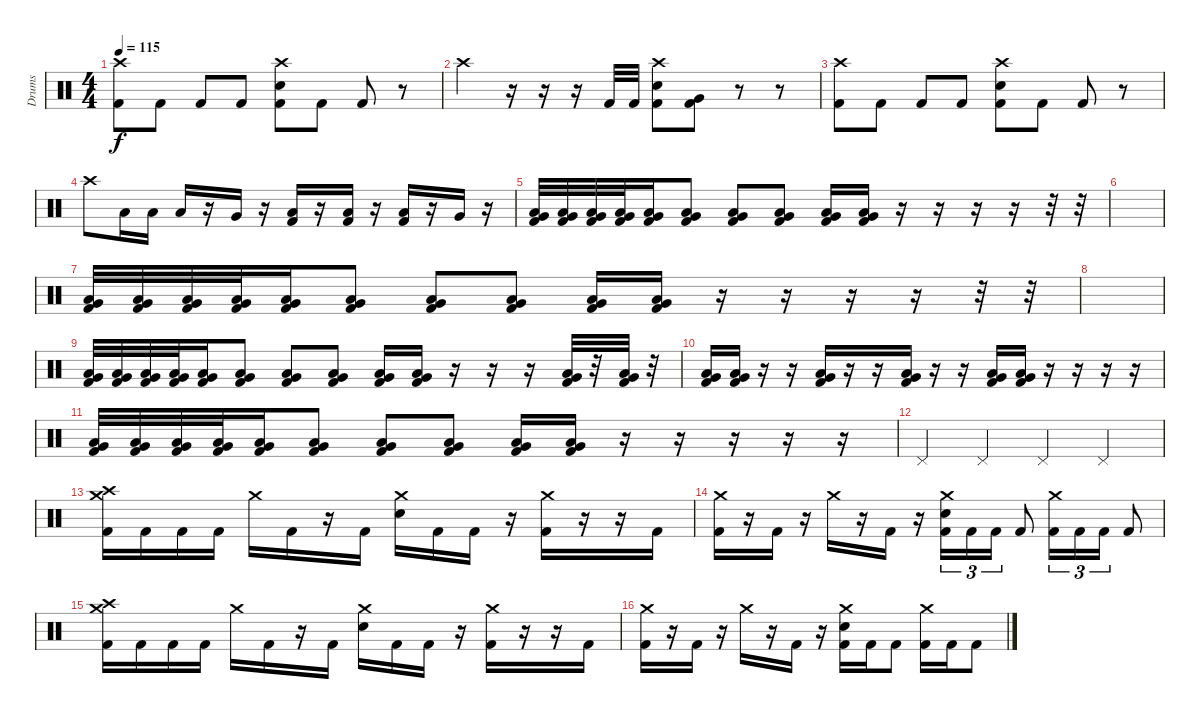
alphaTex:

\track ("Drums" "Drums") {instrument percussion}
\staff {score}
\articulation defaults
\ts (4 4)
\tempo 115
\clef neutral
\ks c
("Crash high (hit)" "Kick (hit) 2").8{dy f} "Kick (hit) 2".8 "Kick (hit) 2".8 "Kick (hit) 2".8 ("Crash high (hit)" "Snare (hit) 2" "Kick (hit) 2").8 "Kick (hit) 2".8 "Kick (hit) 2".8 r.8 |
"Crash high (hit)".4 r.16 r.16 r.16 "Kick (hit) 2".32 "Kick (hit) 2".32 ("Crash high (hit)" "Snare (hit) 2" "Kick (hit) 2").8 ("Very Low Tom (hit)" "Kick (hit) 2").8 r.8 r.8 |
("Crash high (hit)" "Kick (hit) 2").8 "Kick (hit) 2".8 "Kick (hit) 2".8 "Kick (hit) 2".8 ("Crash high (hit)" "Snare (hit) 2" "Kick (hit) 2").8 "Kick (hit) 2".8 "Kick (hit) 2".8 r.8 |
"Crash high (hit)".8 "Low Tom (hit)".16 "Low Tom (hit)".16 "Low Tom (hit)".16 r.16 "Very Low Tom (hit)".16 r.16 ("Low Tom (hit)" "Kick (hit) 2").16 r.16 ("Low Tom (hit)" "Kick (hit) 2").16 r.16 ("Low Tom (hit)" "Kick (hit) 2").16 r.16 "Very Low Tom (hit)".16 r.16 |
("Very Low Tom (hit)" "Low Tom (hit)" "Kick (hit) 2").32 ("Very Low Tom (hit)" "Low Tom (hit)" "Kick (hit) 2").32 ("Very Low Tom (hit)" "Low Tom (hit)" "Kick (hit) 2").32 ("Very Low Tom (hit)" "Low Tom (hit)" "Kick (hit) 2").32 ("Very Low Tom (hit)" "Low Tom (hit)" "Kick (hit) 2").16 ("Very Low Tom (hit)" "Low Tom (hit)" "Kick (hit) 2").8 ("Very Low Tom (hit)" "Low Tom (hit)" "Kick (hit) 2").8 ("Very Low Tom (hit)" "Low Tom (hit)" "Kick (hit) 2").8 ("Very Low Tom (hit)" "Low Tom (hit)" "Kick (hit) 2").16 ("Very Low Tom (hit)" "Low Tom (hit)" "Kick (hit) 2").16 r.16 r.16 r.16 r.16 r.32 r.32 |
|
("Very Low Tom (hit)" "Low Tom (hit)" "Kick (hit) 2").32 ("Very Low Tom (hit)" "Low Tom (hit)" "Kick (hit) 2").32 ("Very Low Tom (hit)" "Low Tom (hit)" "Kick (hit) 2").32 ("Very Low Tom (hit)" "Low Tom (hit)" "Kick (hit) 2").32 ("Very Low Tom (hit)" "Low Tom (hit)" "Kick (hit) 2").16 ("Very Low Tom (hit)" "Low Tom (hit)" "Kick (hit) 2").8 ("Very Low Tom (hit)" "Low Tom (hit)" "Kick (hit) 2").8 ("Very Low Tom (hit)" "Low Tom (hit)" "Kick (hit) 2").8 ("Very Low Tom (hit)" "Low Tom (hit)" "Kick (hit) 2").16 ("Very Low Tom (hit)" "Low Tom (hit)" "Kick (hit) 2").16 r.16 r.16 r.16 r.16 r.32 r.32 |
|
("Very Low Tom (hit)" "Low Tom (hit)" "Kick (hit) 2").32 ("Very Low Tom (hit)" "Low Tom (hit)" "Kick (hit) 2").32 ("Very Low Tom (hit)" "Low Tom (hit)" "Kick (hit) 2").32 ("Very Low Tom (hit)" "Low Tom (hit)" "Kick (hit) 2").32 ("Very Low Tom (hit)" "Low Tom (hit)" "Kick (hit) 2").16 ("Very Low Tom (hit)" "Low Tom (hit)" "Kick (hit) 2").8 ("Very Low Tom (hit)" "Low Tom (hit)" "Kick (hit) 2").8 ("Very Low Tom (hit)" "Low Tom (hit)" "Kick (hit) 2").8 ("Very Low Tom (hit)" "Low Tom (hit)" "Kick (hit) 2").16 ("Very Low Tom (hit)" "Low Tom (hit)" "Kick (hit) 2").16 r.16 r.16 r.16 ("Very Low Tom (hit)" "Low Tom (hit)" "Kick (hit) 2").32 r.32 ("Very Low Tom (hit)" "Low Tom (hit)" "Kick (hit) 2").32 r.32 |
("Very Low Tom (hit)" "Low Tom (hit)" "Kick (hit) 2").16 ("Very Low Tom (hit)" "Low Tom (hit)" "Kick (hit) 2").16 r.16 r.16 ("Very Low Tom (hit)" "Low Tom (hit)" "Kick (hit) 2").16 r.16 r.16 ("Very Low Tom (hit)" "Low Tom (hit)" "Kick (hit) 2").16 r.16 r.16 ("Very Low Tom (hit)" "Low Tom (hit)" "Kick (hit) 2").16 ("Very Low Tom (hit)" "Low Tom (hit)" "Kick (hit) 2").16 r.16 r.16 r.16 r.16 |
("Very Low Tom (hit)" "Low Tom (hit)" "Kick (hit) 2").32 ("Very Low Tom (hit)" "Low Tom (hit)" "Kick (hit) 2").32 ("Very Low Tom (hit)" "Low Tom (hit)" "Kick (hit) 2").32 ("Very Low Tom (hit)" "Low Tom (hit)" "Kick (hit) 2").32 ("Very Low Tom (hit)" "Low Tom (hit)" "Kick (hit) 2").16 ("Very Low Tom (hit)" "Low Tom (hit)" "Kick (hit) 2").8 ("Very Low Tom (hit)" "Low Tom (hit)" "Kick (hit) 2").8 ("Very Low Tom (hit)" "Low Tom (hit)" "Kick (hit) 2").8 ("Very Low Tom (hit)" "Low Tom (hit)" "Kick (hit) 2").16 ("Very Low Tom (hit)" "Low Tom (hit)" "Kick (hit) 2").16 r.16 r.16 r.16 r.16 r.16 |
"Pedal Hi-Hat (hit)".4 "Pedal Hi-Hat (hit)".4 "Pedal Hi-Hat (hit)".4 "Pedal Hi-Hat (hit)".4 |
("Crash high (hit)" "Crash medium (hit)" "Kick (hit) 2").16 "Kick (hit) 2".16 "Kick (hit) 2".16 "Kick (hit) 2".16 "Crash medium (hit)".16 "Kick (hit) 2".16 r.16 "Kick (hit) 2".16 ("Crash medium (hit)" "Snare (hit) 2").16 "Kick (hit) 2".16 "Kick (hit) 2".16 r.16 ("Crash medium (hit)" "Kick (hit) 2").16 r.16 r.16 "Kick (hit) 2".16 |
("Crash medium (hit)" "Kick (hit) 2").16 r.16 "Kick (hit) 2".16 r.16 "Crash medium (hit)".16 r.16 "Kick (hit) 2".16 r.16 ("Crash medium (hit)" "Snare (hit) 2" "Kick (hit) 2").16{tu (3 2)} "Kick (hit) 2".16{tu (3 2)} "Kick (hit) 2".16{tu (3 2)} "Kick (hit) 2".8 ("Crash medium (hit)" "Kick (hit) 2").16{tu (3 2)} "Kick (hit) 2".16{tu (3 2)} "Kick (hit) 2".16{tu (3 2)} "Kick (hit) 2".8 |
("Crash high (hit)" "Crash medium (hit)" "Kick (hit) 2").16 "Kick (hit) 2".16 "Kick (hit) 2".16 "Kick (hit) 2".16 "Crash medium (hit)".16 "Kick (hit) 2".16 r.16 "Kick (hit) 2".16 ("Crash medium (hit)" "Snare (hit) 2").16 "Kick (hit) 2".16 "Kick (hit) 2".16 r.16 ("Crash medium (hit)" "Kick (hit) 2").16 r.16 r.16 "Kick (hit) 2".16 |
("Crash medium (hit)" "Kick (hit) 2").16 r.16 "Kick (hit) 2".16 r.16 "Crash medium (hit)".16 r.16 "Kick (hit) 2".16 r.16 ("Crash medium (hit)" "Snare (hit) 2" "Kick (hit) 2").16 "Kick (hit) 2".16 "Kick (hit) 2".8 ("Crash medium (hit)" "Kick (hit) 2").16 "Kick (hit) 2".16 "Kick (hit) 2".8
